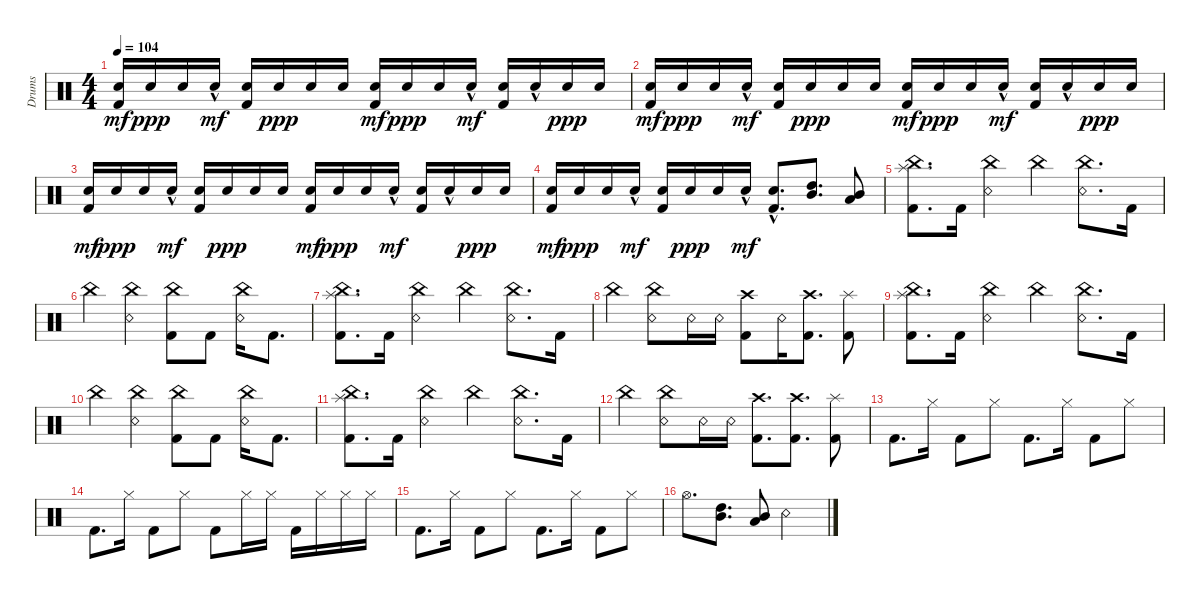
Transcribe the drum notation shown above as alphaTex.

\track ("Drums" "Drums") {instrument percussion}
\staff {score}
\articulation defaults
\ts (4 4)
\tempo 104
\clef neutral
\ks c
("Snare (hit) 2" "Kick (hit) 2").16{dy mf} "Snare (hit) 2".16{dy ppp} "Snare (hit) 2".16 "Snare (hit) 2"{hac}.16{dy mf} ("Snare (hit) 2" "Kick (hit) 2").16 "Snare (hit) 2".16{dy ppp} "Snare (hit) 2".16 "Snare (hit) 2".16 ("Snare (hit) 2" "Kick (hit) 2").16{dy mf} "Snare (hit) 2".16{dy ppp} "Snare (hit) 2".16 "Snare (hit) 2"{hac}.16{dy mf} ("Snare (hit) 2" "Kick (hit) 2").16 "Snare (hit) 2"{hac}.16 "Snare (hit) 2".16{dy ppp} "Snare (hit) 2".16 |
("Snare (hit) 2" "Kick (hit) 2").16{dy mf} "Snare (hit) 2".16{dy ppp} "Snare (hit) 2".16 "Snare (hit) 2"{hac}.16{dy mf} ("Snare (hit) 2" "Kick (hit) 2").16 "Snare (hit) 2".16{dy ppp} "Snare (hit) 2".16 "Snare (hit) 2".16 ("Snare (hit) 2" "Kick (hit) 2").16{dy mf} "Snare (hit) 2".16{dy ppp} "Snare (hit) 2".16 "Snare (hit) 2"{hac}.16{dy mf} ("Snare (hit) 2" "Kick (hit) 2").16 "Snare (hit) 2"{hac}.16 "Snare (hit) 2".16{dy ppp} "Snare (hit) 2".16 |
("Snare (hit) 2" "Kick (hit) 2").16{dy mf} "Snare (hit) 2".16{dy ppp} "Snare (hit) 2".16 "Snare (hit) 2"{hac}.16{dy mf} ("Snare (hit) 2" "Kick (hit) 2").16 "Snare (hit) 2".16{dy ppp} "Snare (hit) 2".16 "Snare (hit) 2".16 ("Snare (hit) 2" "Kick (hit) 2").16{dy mf} "Snare (hit) 2".16{dy ppp} "Snare (hit) 2".16 "Snare (hit) 2"{hac}.16{dy mf} ("Snare (hit) 2" "Kick (hit) 2").16 "Snare (hit) 2"{hac}.16 "Snare (hit) 2".16{dy ppp} "Snare (hit) 2".16 |
("Snare (hit) 2" "Kick (hit) 2").16{dy mf} "Snare (hit) 2".16{dy ppp} "Snare (hit) 2".16 "Snare (hit) 2"{hac}.16{dy mf} ("Snare (hit) 2" "Kick (hit) 2").16 "Snare (hit) 2".16{dy ppp} "Snare (hit) 2".16 "Snare (hit) 2"{hac}.16{dy mf} ("Snare (hit) 2"{hac} "Kick (hit) 2"{hac}).8{d} ("High Tom (hit)" "Mid Tom (hit)").8{d} ("Mid Tom (hit)" "Low Tom (hit)").8 |
("China (hit)" "Splash (hit)" "Kick (hit) 2").8{d} "Kick (hit) 2".16 ("China (hit)" "Snare (rim shot)").4 "China (hit)".4 ("China (hit)" "Snare (rim shot)").8{d} "Kick (hit) 2".16 |
"China (hit)".4 ("China (hit)" "Snare (rim shot)").4 ("China (hit)" "Kick (hit) 2").8 "Kick (hit) 2".8 ("China (hit)" "Snare (rim shot)").16 "Kick (hit) 2".8{d} |
("China (hit)" "Splash (hit)" "Kick (hit) 2").8{d} "Kick (hit) 2".16 ("China (hit)" "Snare (rim shot)").4 "China (hit)".4 ("China (hit)" "Snare (rim shot)").8{d} "Kick (hit) 2".16 |
"China (hit)".4 ("China (hit)" "Snare (rim shot)").8 "Snare (rim shot)".16 "Snare (rim shot)".16 ("Crash high (hit)" "Kick (hit) 2").8 "Snare (rim shot)".16 ("Crash high (hit)" "Kick (hit) 2").8{d} ("Splash (hit)" "Kick (hit) 2").8 |
("China (hit)" "Splash (hit)" "Kick (hit) 2").8{d} "Kick (hit) 2".16 ("China (hit)" "Snare (rim shot)").4 "China (hit)".4 ("China (hit)" "Snare (rim shot)").8{d} "Kick (hit) 2".16 |
"China (hit)".4 ("China (hit)" "Snare (rim shot)").4 ("China (hit)" "Kick (hit) 2").8 "Kick (hit) 2".8 ("China (hit)" "Snare (rim shot)").16 "Kick (hit) 2".8{d} |
("China (hit)" "Splash (hit)" "Kick (hit) 2").8{d} "Kick (hit) 2".16 ("China (hit)" "Snare (rim shot)").4 "China (hit)".4 ("China (hit)" "Snare (rim shot)").8{d} "Kick (hit) 2".16 |
"China (hit)".4 ("China (hit)" "Snare (rim shot)").8 "Snare (rim shot)".16 "Snare (rim shot)".16 ("Crash high (hit)" "Kick (hit) 2").8{d} ("Crash high (hit)" "Kick (hit) 2").8{d} ("Splash (hit)" "Kick (hit) 2").8 |
"Kick (hit) 2".8{d} "Hi-Hat (closed)".16 "Kick (hit) 2".8 "Hi-Hat (closed)".8 "Kick (hit) 2".8{d} "Hi-Hat (closed)".16 "Kick (hit) 2".8 "Hi-Hat (closed)".8 |
"Kick (hit) 2".8{d} "Hi-Hat (closed)".16 "Kick (hit) 2".8 "Hi-Hat (closed)".8 "Kick (hit) 2".8 "Hi-Hat (closed)".16 "Hi-Hat (closed)".16 "Kick (hit) 2".16 "Hi-Hat (closed)".16 "Hi-Hat (closed)".16 "Hi-Hat (closed)".16 |
"Kick (hit) 2".8{d} "Hi-Hat (closed)".16 "Kick (hit) 2".8 "Hi-Hat (closed)".8 "Kick (hit) 2".8{d} "Hi-Hat (closed)".16 "Kick (hit) 2".8 "Hi-Hat (closed)".8 |
"Hi-Hat (open)".8{d} ("High Tom (hit)" "Mid Tom (hit)").8{d} ("Mid Tom (hit)" "Low Tom (hit)").8 "Snare (rim shot)".2
